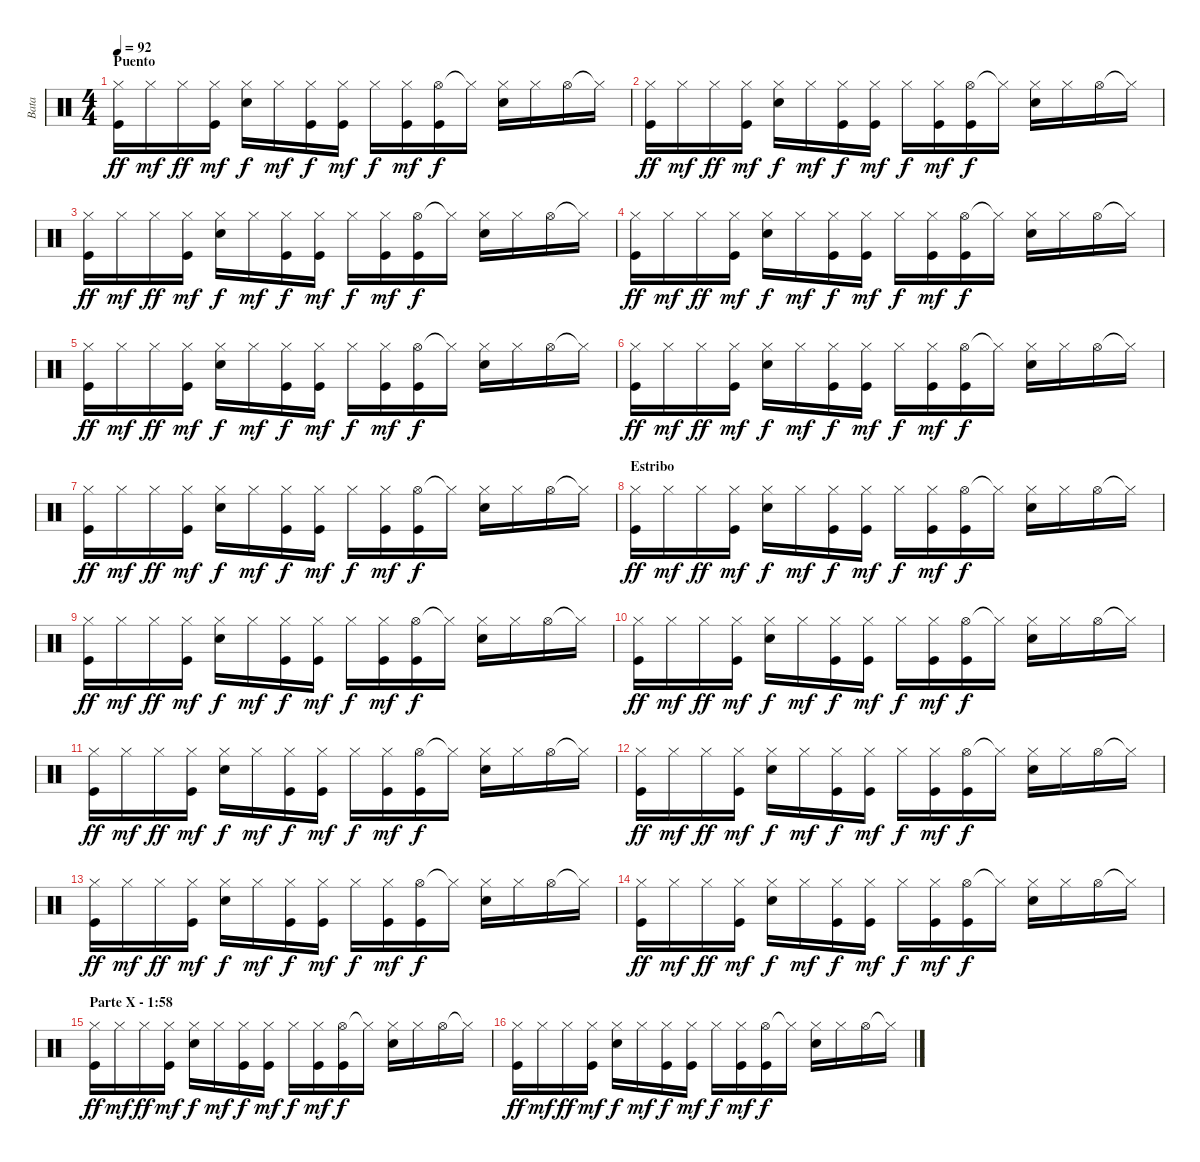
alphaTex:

\track ("Bata" "Bata") {instrument percussion}
\staff {score}
\articulation defaults
\ts (4 4)
\section ("" "Puento")
\tempo 92
\clef neutral
\ks c
("Hi-Hat (closed)" "Kick (hit)").16{dy ff} "Hi-Hat (closed)".16{dy mf} "Hi-Hat (closed)".16{dy ff} ("Hi-Hat (closed)" "Kick (hit)").16{dy mf} ("Hi-Hat (closed)" "Electric Snare (hit)").16{dy f} "Hi-Hat (closed)".16{dy mf} ("Hi-Hat (closed)" "Kick (hit)").16{dy f} ("Hi-Hat (closed)" "Kick (hit)").16{dy mf} "Hi-Hat (closed)".16{dy f} ("Hi-Hat (closed)" "Kick (hit)").16{dy mf} ("Hi-Hat (open)" "Kick (hit)").16{dy f} "Hi-Hat (closed)"{t}.16 ("Hi-Hat (closed)" "Electric Snare (hit)").16 "Hi-Hat (closed)".16 "Hi-Hat (open)".16 "Hi-Hat (closed)"{t}.16 |
("Hi-Hat (closed)" "Kick (hit)").16{dy ff} "Hi-Hat (closed)".16{dy mf} "Hi-Hat (closed)".16{dy ff} ("Hi-Hat (closed)" "Kick (hit)").16{dy mf} ("Hi-Hat (closed)" "Electric Snare (hit)").16{dy f} "Hi-Hat (closed)".16{dy mf} ("Hi-Hat (closed)" "Kick (hit)").16{dy f} ("Hi-Hat (closed)" "Kick (hit)").16{dy mf} "Hi-Hat (closed)".16{dy f} ("Hi-Hat (closed)" "Kick (hit)").16{dy mf} ("Hi-Hat (open)" "Kick (hit)").16{dy f} "Hi-Hat (closed)"{t}.16 ("Hi-Hat (closed)" "Electric Snare (hit)").16 "Hi-Hat (closed)".16 "Hi-Hat (open)".16 "Hi-Hat (closed)"{t}.16 |
("Hi-Hat (closed)" "Kick (hit)").16{dy ff} "Hi-Hat (closed)".16{dy mf} "Hi-Hat (closed)".16{dy ff} ("Hi-Hat (closed)" "Kick (hit)").16{dy mf} ("Hi-Hat (closed)" "Electric Snare (hit)").16{dy f} "Hi-Hat (closed)".16{dy mf} ("Hi-Hat (closed)" "Kick (hit)").16{dy f} ("Hi-Hat (closed)" "Kick (hit)").16{dy mf} "Hi-Hat (closed)".16{dy f} ("Hi-Hat (closed)" "Kick (hit)").16{dy mf} ("Hi-Hat (open)" "Kick (hit)").16{dy f} "Hi-Hat (closed)"{t}.16 ("Hi-Hat (closed)" "Electric Snare (hit)").16 "Hi-Hat (closed)".16 "Hi-Hat (open)".16 "Hi-Hat (closed)"{t}.16 |
("Hi-Hat (closed)" "Kick (hit)").16{dy ff} "Hi-Hat (closed)".16{dy mf} "Hi-Hat (closed)".16{dy ff} ("Hi-Hat (closed)" "Kick (hit)").16{dy mf} ("Hi-Hat (closed)" "Electric Snare (hit)").16{dy f} "Hi-Hat (closed)".16{dy mf} ("Hi-Hat (closed)" "Kick (hit)").16{dy f} ("Hi-Hat (closed)" "Kick (hit)").16{dy mf} "Hi-Hat (closed)".16{dy f} ("Hi-Hat (closed)" "Kick (hit)").16{dy mf} ("Hi-Hat (open)" "Kick (hit)").16{dy f} "Hi-Hat (closed)"{t}.16 ("Hi-Hat (closed)" "Electric Snare (hit)").16 "Hi-Hat (closed)".16 "Hi-Hat (open)".16 "Hi-Hat (closed)"{t}.16 |
("Hi-Hat (closed)" "Kick (hit)").16{dy ff} "Hi-Hat (closed)".16{dy mf} "Hi-Hat (closed)".16{dy ff} ("Hi-Hat (closed)" "Kick (hit)").16{dy mf} ("Hi-Hat (closed)" "Electric Snare (hit)").16{dy f} "Hi-Hat (closed)".16{dy mf} ("Hi-Hat (closed)" "Kick (hit)").16{dy f} ("Hi-Hat (closed)" "Kick (hit)").16{dy mf} "Hi-Hat (closed)".16{dy f} ("Hi-Hat (closed)" "Kick (hit)").16{dy mf} ("Hi-Hat (open)" "Kick (hit)").16{dy f} "Hi-Hat (closed)"{t}.16 ("Hi-Hat (closed)" "Electric Snare (hit)").16 "Hi-Hat (closed)".16 "Hi-Hat (open)".16 "Hi-Hat (closed)"{t}.16 |
("Hi-Hat (closed)" "Kick (hit)").16{dy ff} "Hi-Hat (closed)".16{dy mf} "Hi-Hat (closed)".16{dy ff} ("Hi-Hat (closed)" "Kick (hit)").16{dy mf} ("Hi-Hat (closed)" "Electric Snare (hit)").16{dy f} "Hi-Hat (closed)".16{dy mf} ("Hi-Hat (closed)" "Kick (hit)").16{dy f} ("Hi-Hat (closed)" "Kick (hit)").16{dy mf} "Hi-Hat (closed)".16{dy f} ("Hi-Hat (closed)" "Kick (hit)").16{dy mf} ("Hi-Hat (open)" "Kick (hit)").16{dy f} "Hi-Hat (closed)"{t}.16 ("Hi-Hat (closed)" "Electric Snare (hit)").16 "Hi-Hat (closed)".16 "Hi-Hat (open)".16 "Hi-Hat (closed)"{t}.16 |
("Hi-Hat (closed)" "Kick (hit)").16{dy ff} "Hi-Hat (closed)".16{dy mf} "Hi-Hat (closed)".16{dy ff} ("Hi-Hat (closed)" "Kick (hit)").16{dy mf} ("Hi-Hat (closed)" "Electric Snare (hit)").16{dy f} "Hi-Hat (closed)".16{dy mf} ("Hi-Hat (closed)" "Kick (hit)").16{dy f} ("Hi-Hat (closed)" "Kick (hit)").16{dy mf} "Hi-Hat (closed)".16{dy f} ("Hi-Hat (closed)" "Kick (hit)").16{dy mf} ("Hi-Hat (open)" "Kick (hit)").16{dy f} "Hi-Hat (closed)"{t}.16 ("Hi-Hat (closed)" "Electric Snare (hit)").16 "Hi-Hat (closed)".16 "Hi-Hat (open)".16 "Hi-Hat (closed)"{t}.16 |
\section ("" "Estribo")
("Hi-Hat (closed)" "Kick (hit)").16{dy ff} "Hi-Hat (closed)".16{dy mf} "Hi-Hat (closed)".16{dy ff} ("Hi-Hat (closed)" "Kick (hit)").16{dy mf} ("Hi-Hat (closed)" "Electric Snare (hit)").16{dy f} "Hi-Hat (closed)".16{dy mf} ("Hi-Hat (closed)" "Kick (hit)").16{dy f} ("Hi-Hat (closed)" "Kick (hit)").16{dy mf} "Hi-Hat (closed)".16{dy f} ("Hi-Hat (closed)" "Kick (hit)").16{dy mf} ("Hi-Hat (open)" "Kick (hit)").16{dy f} "Hi-Hat (closed)"{t}.16 ("Hi-Hat (closed)" "Electric Snare (hit)").16 "Hi-Hat (closed)".16 "Hi-Hat (open)".16 "Hi-Hat (closed)"{t}.16 |
("Hi-Hat (closed)" "Kick (hit)").16{dy ff} "Hi-Hat (closed)".16{dy mf} "Hi-Hat (closed)".16{dy ff} ("Hi-Hat (closed)" "Kick (hit)").16{dy mf} ("Hi-Hat (closed)" "Electric Snare (hit)").16{dy f} "Hi-Hat (closed)".16{dy mf} ("Hi-Hat (closed)" "Kick (hit)").16{dy f} ("Hi-Hat (closed)" "Kick (hit)").16{dy mf} "Hi-Hat (closed)".16{dy f} ("Hi-Hat (closed)" "Kick (hit)").16{dy mf} ("Hi-Hat (open)" "Kick (hit)").16{dy f} "Hi-Hat (closed)"{t}.16 ("Hi-Hat (closed)" "Electric Snare (hit)").16 "Hi-Hat (closed)".16 "Hi-Hat (open)".16 "Hi-Hat (closed)"{t}.16 |
("Hi-Hat (closed)" "Kick (hit)").16{dy ff} "Hi-Hat (closed)".16{dy mf} "Hi-Hat (closed)".16{dy ff} ("Hi-Hat (closed)" "Kick (hit)").16{dy mf} ("Hi-Hat (closed)" "Electric Snare (hit)").16{dy f} "Hi-Hat (closed)".16{dy mf} ("Hi-Hat (closed)" "Kick (hit)").16{dy f} ("Hi-Hat (closed)" "Kick (hit)").16{dy mf} "Hi-Hat (closed)".16{dy f} ("Hi-Hat (closed)" "Kick (hit)").16{dy mf} ("Hi-Hat (open)" "Kick (hit)").16{dy f} "Hi-Hat (closed)"{t}.16 ("Hi-Hat (closed)" "Electric Snare (hit)").16 "Hi-Hat (closed)".16 "Hi-Hat (open)".16 "Hi-Hat (closed)"{t}.16 |
("Hi-Hat (closed)" "Kick (hit)").16{dy ff} "Hi-Hat (closed)".16{dy mf} "Hi-Hat (closed)".16{dy ff} ("Hi-Hat (closed)" "Kick (hit)").16{dy mf} ("Hi-Hat (closed)" "Electric Snare (hit)").16{dy f} "Hi-Hat (closed)".16{dy mf} ("Hi-Hat (closed)" "Kick (hit)").16{dy f} ("Hi-Hat (closed)" "Kick (hit)").16{dy mf} "Hi-Hat (closed)".16{dy f} ("Hi-Hat (closed)" "Kick (hit)").16{dy mf} ("Hi-Hat (open)" "Kick (hit)").16{dy f} "Hi-Hat (closed)"{t}.16 ("Hi-Hat (closed)" "Electric Snare (hit)").16 "Hi-Hat (closed)".16 "Hi-Hat (open)".16 "Hi-Hat (closed)"{t}.16 |
("Hi-Hat (closed)" "Kick (hit)").16{dy ff} "Hi-Hat (closed)".16{dy mf} "Hi-Hat (closed)".16{dy ff} ("Hi-Hat (closed)" "Kick (hit)").16{dy mf} ("Hi-Hat (closed)" "Electric Snare (hit)").16{dy f} "Hi-Hat (closed)".16{dy mf} ("Hi-Hat (closed)" "Kick (hit)").16{dy f} ("Hi-Hat (closed)" "Kick (hit)").16{dy mf} "Hi-Hat (closed)".16{dy f} ("Hi-Hat (closed)" "Kick (hit)").16{dy mf} ("Hi-Hat (open)" "Kick (hit)").16{dy f} "Hi-Hat (closed)"{t}.16 ("Hi-Hat (closed)" "Electric Snare (hit)").16 "Hi-Hat (closed)".16 "Hi-Hat (open)".16 "Hi-Hat (closed)"{t}.16 |
("Hi-Hat (closed)" "Kick (hit)").16{dy ff} "Hi-Hat (closed)".16{dy mf} "Hi-Hat (closed)".16{dy ff} ("Hi-Hat (closed)" "Kick (hit)").16{dy mf} ("Hi-Hat (closed)" "Electric Snare (hit)").16{dy f} "Hi-Hat (closed)".16{dy mf} ("Hi-Hat (closed)" "Kick (hit)").16{dy f} ("Hi-Hat (closed)" "Kick (hit)").16{dy mf} "Hi-Hat (closed)".16{dy f} ("Hi-Hat (closed)" "Kick (hit)").16{dy mf} ("Hi-Hat (open)" "Kick (hit)").16{dy f} "Hi-Hat (closed)"{t}.16 ("Hi-Hat (closed)" "Electric Snare (hit)").16 "Hi-Hat (closed)".16 "Hi-Hat (open)".16 "Hi-Hat (closed)"{t}.16 |
("Hi-Hat (closed)" "Kick (hit)").16{dy ff} "Hi-Hat (closed)".16{dy mf} "Hi-Hat (closed)".16{dy ff} ("Hi-Hat (closed)" "Kick (hit)").16{dy mf} ("Hi-Hat (closed)" "Electric Snare (hit)").16{dy f} "Hi-Hat (closed)".16{dy mf} ("Hi-Hat (closed)" "Kick (hit)").16{dy f} ("Hi-Hat (closed)" "Kick (hit)").16{dy mf} "Hi-Hat (closed)".16{dy f} ("Hi-Hat (closed)" "Kick (hit)").16{dy mf} ("Hi-Hat (open)" "Kick (hit)").16{dy f} "Hi-Hat (closed)"{t}.16 ("Hi-Hat (closed)" "Electric Snare (hit)").16 "Hi-Hat (closed)".16 "Hi-Hat (open)".16 "Hi-Hat (closed)"{t}.16 |
\section ("" "Parte X - 1:58")
("Hi-Hat (closed)" "Kick (hit)").16{dy ff} "Hi-Hat (closed)".16{dy mf} "Hi-Hat (closed)".16{dy ff} ("Hi-Hat (closed)" "Kick (hit)").16{dy mf} ("Hi-Hat (closed)" "Electric Snare (hit)").16{dy f} "Hi-Hat (closed)".16{dy mf} ("Hi-Hat (closed)" "Kick (hit)").16{dy f} ("Hi-Hat (closed)" "Kick (hit)").16{dy mf} "Hi-Hat (closed)".16{dy f} ("Hi-Hat (closed)" "Kick (hit)").16{dy mf} ("Hi-Hat (open)" "Kick (hit)").16{dy f} "Hi-Hat (closed)"{t}.16 ("Hi-Hat (closed)" "Electric Snare (hit)").16 "Hi-Hat (closed)".16 "Hi-Hat (open)".16 "Hi-Hat (closed)"{t}.16 |
("Hi-Hat (closed)" "Kick (hit)").16{dy ff} "Hi-Hat (closed)".16{dy mf} "Hi-Hat (closed)".16{dy ff} ("Hi-Hat (closed)" "Kick (hit)").16{dy mf} ("Hi-Hat (closed)" "Electric Snare (hit)").16{dy f} "Hi-Hat (closed)".16{dy mf} ("Hi-Hat (closed)" "Kick (hit)").16{dy f} ("Hi-Hat (closed)" "Kick (hit)").16{dy mf} "Hi-Hat (closed)".16{dy f} ("Hi-Hat (closed)" "Kick (hit)").16{dy mf} ("Hi-Hat (open)" "Kick (hit)").16{dy f} "Hi-Hat (closed)"{t}.16 ("Hi-Hat (closed)" "Electric Snare (hit)").16 "Hi-Hat (closed)".16 "Hi-Hat (open)".16 "Hi-Hat (closed)"{t}.16
